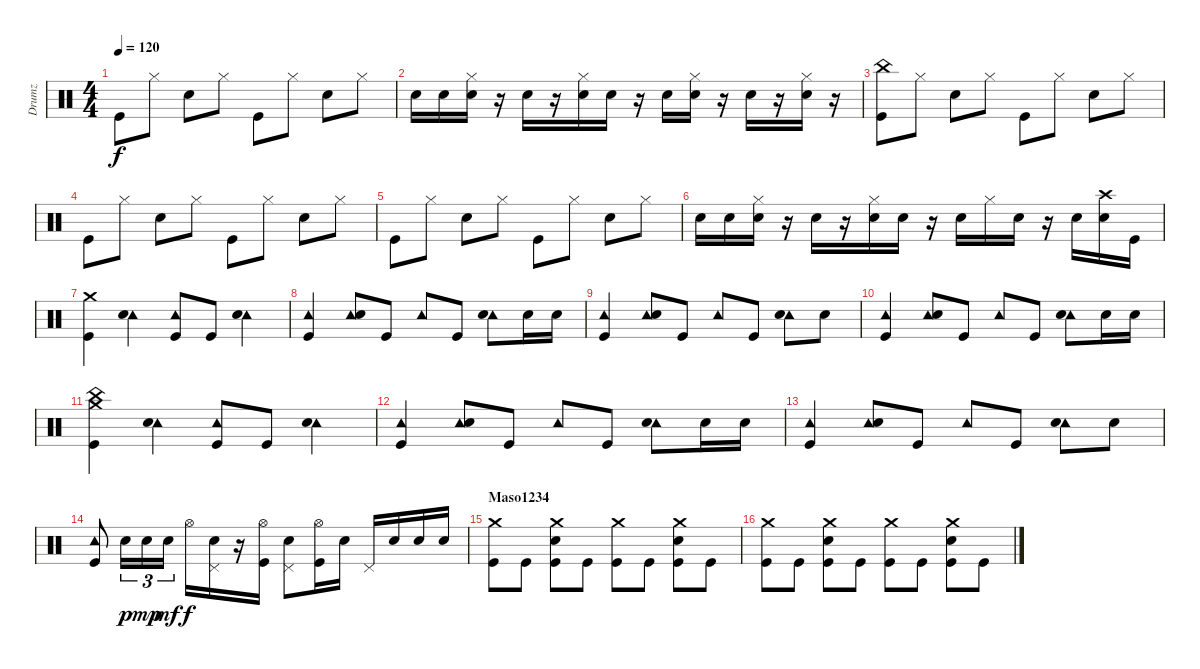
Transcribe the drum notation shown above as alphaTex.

\track ("Drumz" "Drumz") {instrument percussion}
\staff {score}
\articulation defaults
\ts (4 4)
\tempo 120
\clef neutral
\ks c "Kick (hit)".8{dy f} "Hi-Hat (closed)".8 "Electric Snare (hit)".8 "Hi-Hat (closed)".8 "Kick (hit)".8 "Hi-Hat (closed)".8 "Electric Snare (hit)".8 "Hi-Hat (closed)".8
|
"Electric Snare (hit)".16 "Electric Snare (hit)".16 ("Hi-Hat (closed)" "Electric Snare (hit)").16 r.16 "Electric Snare (hit)".16 r.16 ("Hi-Hat (closed)" "Electric Snare (hit)").16 "Electric Snare (hit)".16 r.16 "Electric Snare (hit)".16 ("Hi-Hat (closed)" "Electric Snare (hit)").16 r.16 "Electric Snare (hit)".16 r.16 ("Hi-Hat (closed)" "Electric Snare (hit)").16 r.16 |
("China (hit)" "Kick (hit)").8 "Hi-Hat (closed)".8 "Electric Snare (hit)".8 "Hi-Hat (closed)".8 "Kick (hit)".8 "Hi-Hat (closed)".8 "Electric Snare (hit)".8 "Hi-Hat (closed)".8 |
"Kick (hit)".8 "Hi-Hat (closed)".8 "Electric Snare (hit)".8 "Hi-Hat (closed)".8 "Kick (hit)".8 "Hi-Hat (closed)".8 "Electric Snare (hit)".8 "Hi-Hat (closed)".8 |
"Kick (hit)".8 "Hi-Hat (closed)".8 "Electric Snare (hit)".8 "Hi-Hat (closed)".8 "Kick (hit)".8 "Hi-Hat (closed)".8 "Electric Snare (hit)".8 "Hi-Hat (closed)".8 |
"Electric Snare (hit)".16 "Electric Snare (hit)".16 ("Hi-Hat (closed)" "Electric Snare (hit)").16 r.16 "Electric Snare (hit)".16 r.16 ("Hi-Hat (closed)" "Electric Snare (hit)").16 "Electric Snare (hit)".16 r.16 "Electric Snare (hit)".16 "Hi-Hat (closed)".16 "Electric Snare (hit)".16 r.16 "Electric Snare (hit)".16 ("Crash high (hit)" "Electric Snare (hit)").16 "Kick (hit)".16 |
("Crash medium (hit)" "Kick (hit)").4 ("Tambourine (hit)" "Electric Snare (hit)").4 ("Tambourine (hit)" "Kick (hit)").8 "Kick (hit)".8 ("Tambourine (hit)" "Electric Snare (hit)").4 |
("Tambourine (hit)" "Kick (hit)").4 ("Tambourine (hit)" "Electric Snare (hit)").8 "Kick (hit)".8 "Tambourine (hit)".8 "Kick (hit)".8 ("Tambourine (hit)" "Electric Snare (hit)").8 "Electric Snare (hit)".16 "Electric Snare (hit)".16 |
("Tambourine (hit)" "Kick (hit)").4 ("Tambourine (hit)" "Electric Snare (hit)").8 "Kick (hit)".8 "Tambourine (hit)".8 "Kick (hit)".8 ("Tambourine (hit)" "Electric Snare (hit)").8 "Electric Snare (hit)".8 |
("Tambourine (hit)" "Kick (hit)").4 ("Tambourine (hit)" "Electric Snare (hit)").8 "Kick (hit)".8 "Tambourine (hit)".8 "Kick (hit)".8 ("Tambourine (hit)" "Electric Snare (hit)").8 "Electric Snare (hit)".16 "Electric Snare (hit)".16 |
("Crash medium (hit)" "China (hit)" "Kick (hit)").4 ("Tambourine (hit)" "Electric Snare (hit)").4 ("Tambourine (hit)" "Kick (hit)").8 "Kick (hit)".8 ("Tambourine (hit)" "Electric Snare (hit)").4 |
("Tambourine (hit)" "Kick (hit)").4 ("Tambourine (hit)" "Electric Snare (hit)").8 "Kick (hit)".8 "Tambourine (hit)".8 "Kick (hit)".8 ("Tambourine (hit)" "Electric Snare (hit)").8 "Electric Snare (hit)".16 "Electric Snare (hit)".16 |
("Tambourine (hit)" "Kick (hit)").4 ("Tambourine (hit)" "Electric Snare (hit)").8 "Kick (hit)".8 "Tambourine (hit)".8 "Kick (hit)".8 ("Tambourine (hit)" "Electric Snare (hit)").8 "Electric Snare (hit)".8 |
("Tambourine (hit)" "Kick (hit)").8 "Electric Snare (hit)".16{tu (3 2) dy p} "Electric Snare (hit)".16{tu (3 2) dy mp} "Electric Snare (hit)".16{tu (3 2) dy mf} "Hi-Hat (open)".16{dy f} ("Pedal Hi-Hat (hit)" "Electric Snare (hit)").16 r.16 ("Hi-Hat (open)" "Kick (hit)").16 ("Pedal Hi-Hat (hit)" "Electric Snare (hit)").8 ("Hi-Hat (open)" "Kick (hit)").16 "Electric Snare (hit)".16 "Pedal Hi-Hat (hit)".16 "Electric Snare (hit)".16 "Electric Snare (hit)".16 "Electric Snare (hit)".16 |
\section ("" "Maso1234")
("Crash medium (hit)" "Kick (hit)").8 "Kick (hit)".8 ("Crash medium (hit)" "Electric Snare (hit)" "Kick (hit)").8 "Kick (hit)".8 ("Crash medium (hit)" "Kick (hit)").8 "Kick (hit)".8 ("Crash medium (hit)" "Electric Snare (hit)" "Kick (hit)").8 "Kick (hit)".8 |
("Crash medium (hit)" "Kick (hit)").8 "Kick (hit)".8 ("Crash medium (hit)" "Electric Snare (hit)" "Kick (hit)").8 "Kick (hit)".8 ("Crash medium (hit)" "Kick (hit)").8 "Kick (hit)".8 ("Crash medium (hit)" "Electric Snare (hit)" "Kick (hit)").8 "Kick (hit)".8
